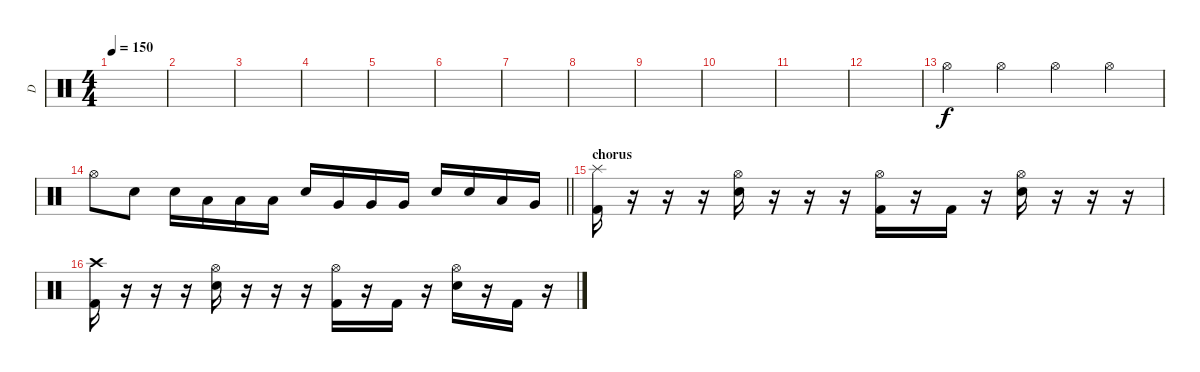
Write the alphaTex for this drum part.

\track ("D" "D") {instrument percussion}
\staff {score}
\articulation defaults
\ts (4 4)
\tempo 150
\clef neutral
\ks c
|
|
|
|
|
|
|
|
|
|
|
|
"Hi-Hat (open)".4 "Hi-Hat (open)".4 "Hi-Hat (open)".4 "Hi-Hat (open)".4 |
\barLineRight lightlight "Hi-Hat (open)".8 "Electric Snare (hit)".8 "Electric Snare (hit)".16 "Low Tom (hit)".16 "Low Tom (hit)".16 "Low Tom (hit)".16 "Electric Snare (hit)".16 "Very Low Tom (hit)".16 "Very Low Tom (hit)".16 "Very Low Tom (hit)".16 "Electric Snare (hit)".16 "Electric Snare (hit)".16 "Low Tom (hit)".16 "Very Low Tom (hit)".16
|
\section ("" "chorus")
("Splash (hit)" "Kick (hit) 2").16 r.16 r.16 r.16 ("Hi-Hat (open)" "Electric Snare (hit)").16 r.16 r.16 r.16 ("Hi-Hat (open)" "Kick (hit) 2").16 r.16 "Kick (hit) 2".16 r.16 ("Hi-Hat (open)" "Electric Snare (hit)").16 r.16 r.16 r.16 |
("Crash high (hit)" "Kick (hit) 2").16 r.16 r.16 r.16 ("Hi-Hat (open)" "Electric Snare (hit)").16 r.16 r.16 r.16 ("Hi-Hat (open)" "Kick (hit) 2").16 r.16 "Kick (hit) 2".16 r.16 ("Hi-Hat (open)" "Electric Snare (hit)").16 r.16 "Kick (hit) 2".16 r.16
